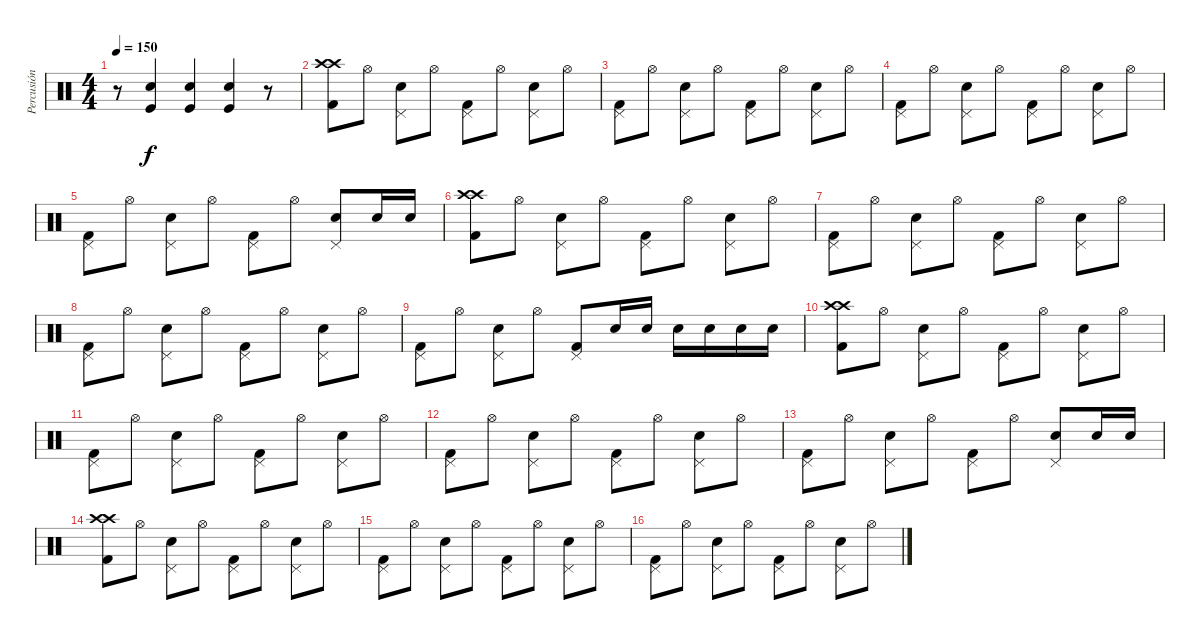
\track ("Percusión" "Percusión") {instrument percussion}
\staff {score}
\articulation defaults
\ts (4 4)
\tempo 150
\clef neutral
\ks c
r.8{dy f} ("Electric Snare (hit)" "Kick (hit)").4 ("Electric Snare (hit)" "Kick (hit)").4 ("Electric Snare (hit)" "Kick (hit)").4 r.8 |
("Crash high (hit)" "Crash high (hit)" "Kick (hit) 2").8 "Hi-Hat (open)".8 ("Pedal Hi-Hat (hit)" "Electric Snare (hit)").8 "Hi-Hat (open)".8 ("Pedal Hi-Hat (hit)" "Kick (hit) 2").8 "Hi-Hat (open)".8 ("Pedal Hi-Hat (hit)" "Electric Snare (hit)").8 "Hi-Hat (open)".8 |
("Pedal Hi-Hat (hit)" "Kick (hit) 2").8 "Hi-Hat (open)".8 ("Pedal Hi-Hat (hit)" "Electric Snare (hit)").8 "Hi-Hat (open)".8 ("Pedal Hi-Hat (hit)" "Kick (hit) 2").8 "Hi-Hat (open)".8 ("Pedal Hi-Hat (hit)" "Electric Snare (hit)").8 "Hi-Hat (open)".8 |
("Pedal Hi-Hat (hit)" "Kick (hit) 2").8 "Hi-Hat (open)".8 ("Pedal Hi-Hat (hit)" "Electric Snare (hit)").8 "Hi-Hat (open)".8 ("Pedal Hi-Hat (hit)" "Kick (hit) 2").8 "Hi-Hat (open)".8 ("Pedal Hi-Hat (hit)" "Electric Snare (hit)").8 "Hi-Hat (open)".8 |
("Pedal Hi-Hat (hit)" "Kick (hit) 2").8 "Hi-Hat (open)".8 ("Pedal Hi-Hat (hit)" "Electric Snare (hit)").8 "Hi-Hat (open)".8 ("Pedal Hi-Hat (hit)" "Kick (hit) 2").8 "Hi-Hat (open)".8 ("Pedal Hi-Hat (hit)" "Electric Snare (hit)").8 "Electric Snare (hit)".16 "Electric Snare (hit)".16 |
("Crash high (hit)" "Crash high (hit)" "Kick (hit) 2").8 "Hi-Hat (open)".8 ("Pedal Hi-Hat (hit)" "Electric Snare (hit)").8 "Hi-Hat (open)".8 ("Pedal Hi-Hat (hit)" "Kick (hit) 2").8 "Hi-Hat (open)".8 ("Pedal Hi-Hat (hit)" "Electric Snare (hit)").8 "Hi-Hat (open)".8 |
("Pedal Hi-Hat (hit)" "Kick (hit) 2").8 "Hi-Hat (open)".8 ("Pedal Hi-Hat (hit)" "Electric Snare (hit)").8 "Hi-Hat (open)".8 ("Pedal Hi-Hat (hit)" "Kick (hit) 2").8 "Hi-Hat (open)".8 ("Pedal Hi-Hat (hit)" "Electric Snare (hit)").8 "Hi-Hat (open)".8 |
("Pedal Hi-Hat (hit)" "Kick (hit) 2").8 "Hi-Hat (open)".8 ("Pedal Hi-Hat (hit)" "Electric Snare (hit)").8 "Hi-Hat (open)".8 ("Pedal Hi-Hat (hit)" "Kick (hit) 2").8 "Hi-Hat (open)".8 ("Pedal Hi-Hat (hit)" "Electric Snare (hit)").8 "Hi-Hat (open)".8 |
("Pedal Hi-Hat (hit)" "Kick (hit) 2").8 "Hi-Hat (open)".8 ("Pedal Hi-Hat (hit)" "Electric Snare (hit)").8 "Hi-Hat (open)".8 ("Pedal Hi-Hat (hit)" "Kick (hit) 2").8 "Electric Snare (hit)".16 "Electric Snare (hit)".16 "Electric Snare (hit)".16 "Electric Snare (hit)".16 "Electric Snare (hit)".16 "Electric Snare (hit)".16 |
("Crash high (hit)" "Crash high (hit)" "Kick (hit) 2").8 "Hi-Hat (open)".8 ("Pedal Hi-Hat (hit)" "Electric Snare (hit)").8 "Hi-Hat (open)".8 ("Pedal Hi-Hat (hit)" "Kick (hit) 2").8 "Hi-Hat (open)".8 ("Pedal Hi-Hat (hit)" "Electric Snare (hit)").8 "Hi-Hat (open)".8 |
("Pedal Hi-Hat (hit)" "Kick (hit) 2").8 "Hi-Hat (open)".8 ("Pedal Hi-Hat (hit)" "Electric Snare (hit)").8 "Hi-Hat (open)".8 ("Pedal Hi-Hat (hit)" "Kick (hit) 2").8 "Hi-Hat (open)".8 ("Pedal Hi-Hat (hit)" "Electric Snare (hit)").8 "Hi-Hat (open)".8 |
("Pedal Hi-Hat (hit)" "Kick (hit) 2").8 "Hi-Hat (open)".8 ("Pedal Hi-Hat (hit)" "Electric Snare (hit)").8 "Hi-Hat (open)".8 ("Pedal Hi-Hat (hit)" "Kick (hit) 2").8 "Hi-Hat (open)".8 ("Pedal Hi-Hat (hit)" "Electric Snare (hit)").8 "Hi-Hat (open)".8 |
("Pedal Hi-Hat (hit)" "Kick (hit) 2").8 "Hi-Hat (open)".8 ("Pedal Hi-Hat (hit)" "Electric Snare (hit)").8 "Hi-Hat (open)".8 ("Pedal Hi-Hat (hit)" "Kick (hit) 2").8 "Hi-Hat (open)".8 ("Pedal Hi-Hat (hit)" "Electric Snare (hit)").8 "Electric Snare (hit)".16 "Electric Snare (hit)".16 |
("Crash high (hit)" "Crash high (hit)" "Kick (hit) 2").8 "Hi-Hat (open)".8 ("Pedal Hi-Hat (hit)" "Electric Snare (hit)").8 "Hi-Hat (open)".8 ("Pedal Hi-Hat (hit)" "Kick (hit) 2").8 "Hi-Hat (open)".8 ("Pedal Hi-Hat (hit)" "Electric Snare (hit)").8 "Hi-Hat (open)".8 |
("Pedal Hi-Hat (hit)" "Kick (hit) 2").8 "Hi-Hat (open)".8 ("Pedal Hi-Hat (hit)" "Electric Snare (hit)").8 "Hi-Hat (open)".8 ("Pedal Hi-Hat (hit)" "Kick (hit) 2").8 "Hi-Hat (open)".8 ("Pedal Hi-Hat (hit)" "Electric Snare (hit)").8 "Hi-Hat (open)".8 |
("Pedal Hi-Hat (hit)" "Kick (hit) 2").8 "Hi-Hat (open)".8 ("Pedal Hi-Hat (hit)" "Electric Snare (hit)").8 "Hi-Hat (open)".8 ("Pedal Hi-Hat (hit)" "Kick (hit) 2").8 "Hi-Hat (open)".8 ("Pedal Hi-Hat (hit)" "Electric Snare (hit)").8 "Hi-Hat (open)".8
